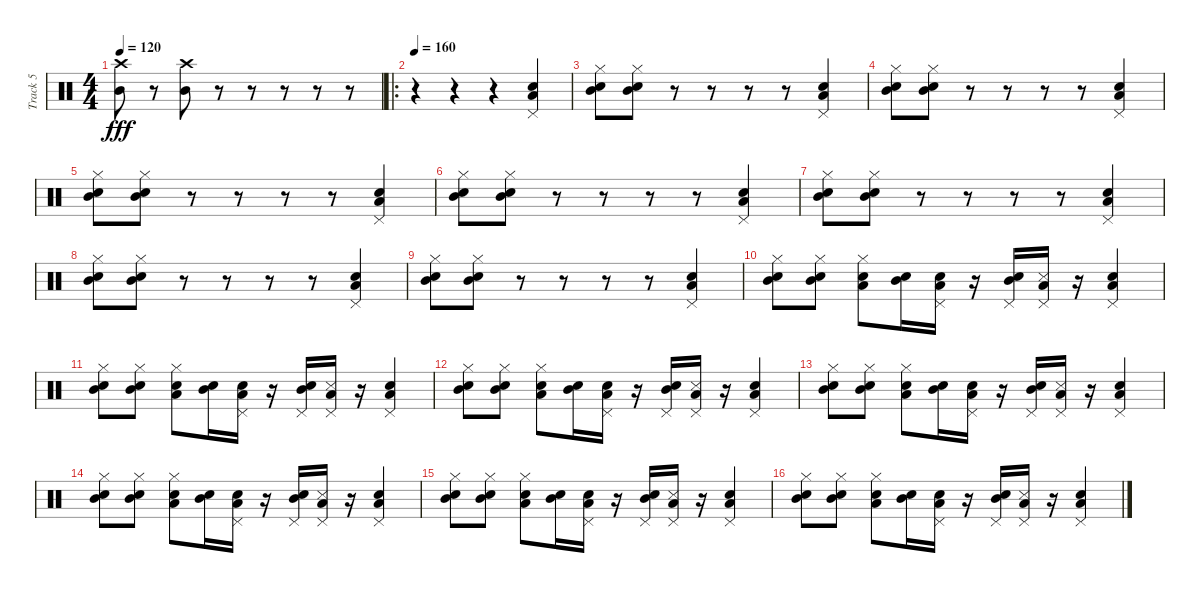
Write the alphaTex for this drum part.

\track ("Track 5" "Track 5") {instrument percussion}
\staff {score}
\articulation defaults
\ts (4 4)
\tempo 120
\clef neutral
\ks c
("Crash high (hit)" "Mid Tom (hit)").8{dy fff} r.8 ("Crash high (hit)" "Mid Tom (hit)").8 r.8 r.8 r.8 r.8 r.8 |
\ro
\tempo 160
r.4 r.4 r.4 ("Pedal Hi-Hat (hit)" "Low Tom (hit)" "Snare (hit) 2").4 |
("Hi-Hat (closed)" "Electric Snare (hit)" "Mid Tom (hit)").8 ("Hi-Hat (closed)" "Electric Snare (hit)" "Mid Tom (hit)").8 r.8 r.8 r.8 r.8 ("Pedal Hi-Hat (hit)" "Low Tom (hit)" "Snare (hit) 2").4 |
("Hi-Hat (closed)" "Electric Snare (hit)" "Mid Tom (hit)").8 ("Hi-Hat (closed)" "Electric Snare (hit)" "Mid Tom (hit)").8 r.8 r.8 r.8 r.8 ("Pedal Hi-Hat (hit)" "Low Tom (hit)" "Snare (hit) 2").4 |
("Hi-Hat (closed)" "Electric Snare (hit)" "Mid Tom (hit)").8 ("Hi-Hat (closed)" "Electric Snare (hit)" "Mid Tom (hit)").8 r.8 r.8 r.8 r.8 ("Pedal Hi-Hat (hit)" "Low Tom (hit)" "Snare (hit) 2").4 |
("Hi-Hat (closed)" "Electric Snare (hit)" "Mid Tom (hit)").8 ("Hi-Hat (closed)" "Electric Snare (hit)" "Mid Tom (hit)").8 r.8 r.8 r.8 r.8 ("Pedal Hi-Hat (hit)" "Low Tom (hit)" "Snare (hit) 2").4 |
("Hi-Hat (closed)" "Electric Snare (hit)" "Mid Tom (hit)").8 ("Hi-Hat (closed)" "Electric Snare (hit)" "Mid Tom (hit)").8 r.8 r.8 r.8 r.8 ("Pedal Hi-Hat (hit)" "Low Tom (hit)" "Snare (hit) 2").4 |
("Hi-Hat (closed)" "Electric Snare (hit)" "Mid Tom (hit)").8 ("Hi-Hat (closed)" "Electric Snare (hit)" "Mid Tom (hit)").8 r.8 r.8 r.8 r.8 ("Pedal Hi-Hat (hit)" "Low Tom (hit)" "Snare (hit) 2").4 |
("Hi-Hat (closed)" "Electric Snare (hit)" "Mid Tom (hit)").8 ("Hi-Hat (closed)" "Electric Snare (hit)" "Mid Tom (hit)").8 r.8 r.8 r.8 r.8 ("Pedal Hi-Hat (hit)" "Low Tom (hit)" "Snare (hit) 2").4 |
("Hi-Hat (closed)" "Electric Snare (hit)" "Mid Tom (hit)").8 ("Hi-Hat (closed)" "Electric Snare (hit)" "Mid Tom (hit)").8 ("Hi-Hat (closed)" "Snare (hit) 2" "Low Tom (hit)").8 ("Electric Snare (hit)" "Mid Tom (hit)").16 ("Low Tom (hit)" "Electric Snare (hit)" "Pedal Hi-Hat (hit)").16 r.16 ("Electric Snare (hit)" "Mid Tom (hit)" "Pedal Hi-Hat (hit)").16 ("Pedal Hi-Hat (hit)" "Low Tom (hit)" "Snare (side stick) 3").16 r.16 ("Pedal Hi-Hat (hit)" "Low Tom (hit)" "Snare (hit) 2").4 |
("Hi-Hat (closed)" "Electric Snare (hit)" "Mid Tom (hit)").8 ("Hi-Hat (closed)" "Electric Snare (hit)" "Mid Tom (hit)").8 ("Hi-Hat (closed)" "Snare (hit) 2" "Low Tom (hit)").8 ("Electric Snare (hit)" "Mid Tom (hit)").16 ("Low Tom (hit)" "Electric Snare (hit)" "Pedal Hi-Hat (hit)").16 r.16 ("Electric Snare (hit)" "Mid Tom (hit)" "Pedal Hi-Hat (hit)").16 ("Pedal Hi-Hat (hit)" "Low Tom (hit)" "Snare (side stick) 3").16 r.16 ("Pedal Hi-Hat (hit)" "Low Tom (hit)" "Snare (hit) 2").4 |
("Hi-Hat (closed)" "Electric Snare (hit)" "Mid Tom (hit)").8 ("Hi-Hat (closed)" "Electric Snare (hit)" "Mid Tom (hit)").8 ("Hi-Hat (closed)" "Snare (hit) 2" "Low Tom (hit)").8 ("Electric Snare (hit)" "Mid Tom (hit)").16 ("Low Tom (hit)" "Electric Snare (hit)" "Pedal Hi-Hat (hit)").16 r.16 ("Electric Snare (hit)" "Mid Tom (hit)" "Pedal Hi-Hat (hit)").16 ("Pedal Hi-Hat (hit)" "Low Tom (hit)" "Snare (side stick) 3").16 r.16 ("Pedal Hi-Hat (hit)" "Low Tom (hit)" "Snare (hit) 2").4 |
("Hi-Hat (closed)" "Electric Snare (hit)" "Mid Tom (hit)").8 ("Hi-Hat (closed)" "Electric Snare (hit)" "Mid Tom (hit)").8 ("Hi-Hat (closed)" "Snare (hit) 2" "Low Tom (hit)").8 ("Electric Snare (hit)" "Mid Tom (hit)").16 ("Low Tom (hit)" "Electric Snare (hit)" "Pedal Hi-Hat (hit)").16 r.16 ("Electric Snare (hit)" "Mid Tom (hit)" "Pedal Hi-Hat (hit)").16 ("Pedal Hi-Hat (hit)" "Low Tom (hit)" "Snare (side stick) 3").16 r.16 ("Pedal Hi-Hat (hit)" "Low Tom (hit)" "Snare (hit) 2").4 |
("Hi-Hat (closed)" "Electric Snare (hit)" "Mid Tom (hit)").8 ("Hi-Hat (closed)" "Electric Snare (hit)" "Mid Tom (hit)").8 ("Hi-Hat (closed)" "Snare (hit) 2" "Low Tom (hit)").8 ("Electric Snare (hit)" "Mid Tom (hit)").16 ("Low Tom (hit)" "Electric Snare (hit)" "Pedal Hi-Hat (hit)").16 r.16 ("Electric Snare (hit)" "Mid Tom (hit)" "Pedal Hi-Hat (hit)").16 ("Pedal Hi-Hat (hit)" "Low Tom (hit)" "Snare (side stick) 3").16 r.16 ("Pedal Hi-Hat (hit)" "Low Tom (hit)" "Snare (hit) 2").4 |
("Hi-Hat (closed)" "Electric Snare (hit)" "Mid Tom (hit)").8 ("Hi-Hat (closed)" "Electric Snare (hit)" "Mid Tom (hit)").8 ("Hi-Hat (closed)" "Snare (hit) 2" "Low Tom (hit)").8 ("Electric Snare (hit)" "Mid Tom (hit)").16 ("Low Tom (hit)" "Electric Snare (hit)" "Pedal Hi-Hat (hit)").16 r.16 ("Electric Snare (hit)" "Mid Tom (hit)" "Pedal Hi-Hat (hit)").16 ("Pedal Hi-Hat (hit)" "Low Tom (hit)" "Snare (side stick) 3").16 r.16 ("Pedal Hi-Hat (hit)" "Low Tom (hit)" "Snare (hit) 2").4 |
("Hi-Hat (closed)" "Electric Snare (hit)" "Mid Tom (hit)").8 ("Hi-Hat (closed)" "Electric Snare (hit)" "Mid Tom (hit)").8 ("Hi-Hat (closed)" "Snare (hit) 2" "Low Tom (hit)").8 ("Electric Snare (hit)" "Mid Tom (hit)").16 ("Low Tom (hit)" "Electric Snare (hit)" "Pedal Hi-Hat (hit)").16 r.16 ("Electric Snare (hit)" "Mid Tom (hit)" "Pedal Hi-Hat (hit)").16 ("Pedal Hi-Hat (hit)" "Low Tom (hit)" "Snare (side stick) 3").16 r.16 ("Pedal Hi-Hat (hit)" "Low Tom (hit)" "Snare (hit) 2").4
